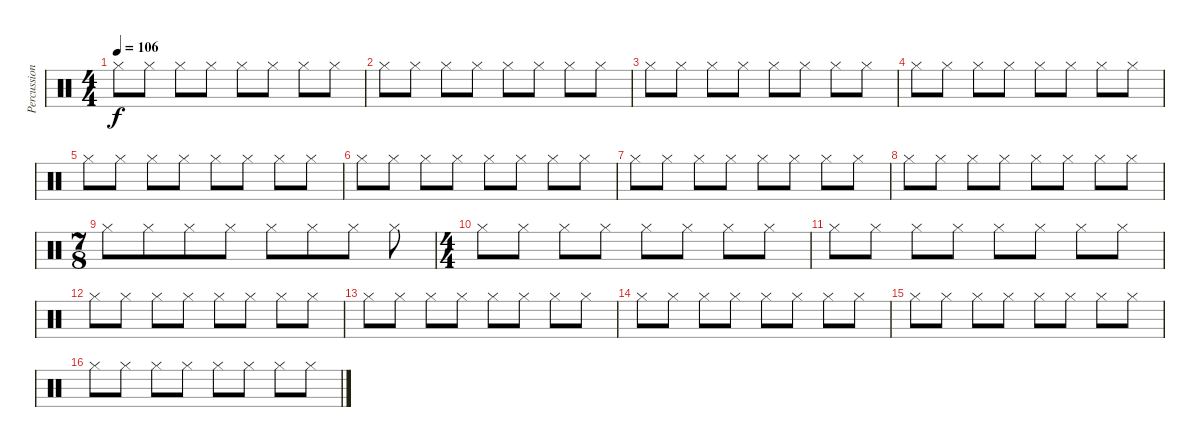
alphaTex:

\track ("Percussions" "Percussion") {instrument percussion}
\staff {score}
\articulation defaults
\ts (4 4)
\tempo 106
\clef neutral
\ks c "Hi-Hat (closed)".8{dy f} "Hi-Hat (closed)".8 "Hi-Hat (closed)".8 "Hi-Hat (closed)".8 "Hi-Hat (closed)".8 "Hi-Hat (closed)".8 "Hi-Hat (closed)".8 "Hi-Hat (closed)".8
|
"Hi-Hat (closed)".8 "Hi-Hat (closed)".8 "Hi-Hat (closed)".8 "Hi-Hat (closed)".8 "Hi-Hat (closed)".8 "Hi-Hat (closed)".8 "Hi-Hat (closed)".8 "Hi-Hat (closed)".8 |
"Hi-Hat (closed)".8 "Hi-Hat (closed)".8 "Hi-Hat (closed)".8 "Hi-Hat (closed)".8 "Hi-Hat (closed)".8 "Hi-Hat (closed)".8 "Hi-Hat (closed)".8 "Hi-Hat (closed)".8 |
"Hi-Hat (closed)".8 "Hi-Hat (closed)".8 "Hi-Hat (closed)".8 "Hi-Hat (closed)".8 "Hi-Hat (closed)".8 "Hi-Hat (closed)".8 "Hi-Hat (closed)".8 "Hi-Hat (closed)".8 |
"Hi-Hat (closed)".8 "Hi-Hat (closed)".8 "Hi-Hat (closed)".8 "Hi-Hat (closed)".8 "Hi-Hat (closed)".8 "Hi-Hat (closed)".8 "Hi-Hat (closed)".8 "Hi-Hat (closed)".8 |
"Hi-Hat (closed)".8 "Hi-Hat (closed)".8 "Hi-Hat (closed)".8 "Hi-Hat (closed)".8 "Hi-Hat (closed)".8 "Hi-Hat (closed)".8 "Hi-Hat (closed)".8 "Hi-Hat (closed)".8 |
"Hi-Hat (closed)".8 "Hi-Hat (closed)".8 "Hi-Hat (closed)".8 "Hi-Hat (closed)".8 "Hi-Hat (closed)".8 "Hi-Hat (closed)".8 "Hi-Hat (closed)".8 "Hi-Hat (closed)".8 |
"Hi-Hat (closed)".8 "Hi-Hat (closed)".8 "Hi-Hat (closed)".8 "Hi-Hat (closed)".8 "Hi-Hat (closed)".8 "Hi-Hat (closed)".8 "Hi-Hat (closed)".8 "Hi-Hat (closed)".8 |
\ts (7 8)
"Hi-Hat (closed)".8 "Hi-Hat (closed)".8 "Hi-Hat (closed)".8 "Hi-Hat (closed)".8 "Hi-Hat (closed)".8 "Hi-Hat (closed)".8 "Hi-Hat (closed)".8 "Hi-Hat (closed)".8 |
\ts (4 4)
"Hi-Hat (closed)".8 "Hi-Hat (closed)".8 "Hi-Hat (closed)".8 "Hi-Hat (closed)".8 "Hi-Hat (closed)".8 "Hi-Hat (closed)".8 "Hi-Hat (closed)".8 "Hi-Hat (closed)".8 |
"Hi-Hat (closed)".8 "Hi-Hat (closed)".8 "Hi-Hat (closed)".8 "Hi-Hat (closed)".8 "Hi-Hat (closed)".8 "Hi-Hat (closed)".8 "Hi-Hat (closed)".8 "Hi-Hat (closed)".8 |
"Hi-Hat (closed)".8 "Hi-Hat (closed)".8 "Hi-Hat (closed)".8 "Hi-Hat (closed)".8 "Hi-Hat (closed)".8 "Hi-Hat (closed)".8 "Hi-Hat (closed)".8 "Hi-Hat (closed)".8 |
"Hi-Hat (closed)".8 "Hi-Hat (closed)".8 "Hi-Hat (closed)".8 "Hi-Hat (closed)".8 "Hi-Hat (closed)".8 "Hi-Hat (closed)".8 "Hi-Hat (closed)".8 "Hi-Hat (closed)".8 |
"Hi-Hat (closed)".8 "Hi-Hat (closed)".8 "Hi-Hat (closed)".8 "Hi-Hat (closed)".8 "Hi-Hat (closed)".8 "Hi-Hat (closed)".8 "Hi-Hat (closed)".8 "Hi-Hat (closed)".8 |
"Hi-Hat (closed)".8 "Hi-Hat (closed)".8 "Hi-Hat (closed)".8 "Hi-Hat (closed)".8 "Hi-Hat (closed)".8 "Hi-Hat (closed)".8 "Hi-Hat (closed)".8 "Hi-Hat (closed)".8 |
"Hi-Hat (closed)".8 "Hi-Hat (closed)".8 "Hi-Hat (closed)".8 "Hi-Hat (closed)".8 "Hi-Hat (closed)".8 "Hi-Hat (closed)".8 "Hi-Hat (closed)".8 "Hi-Hat (closed)".8
